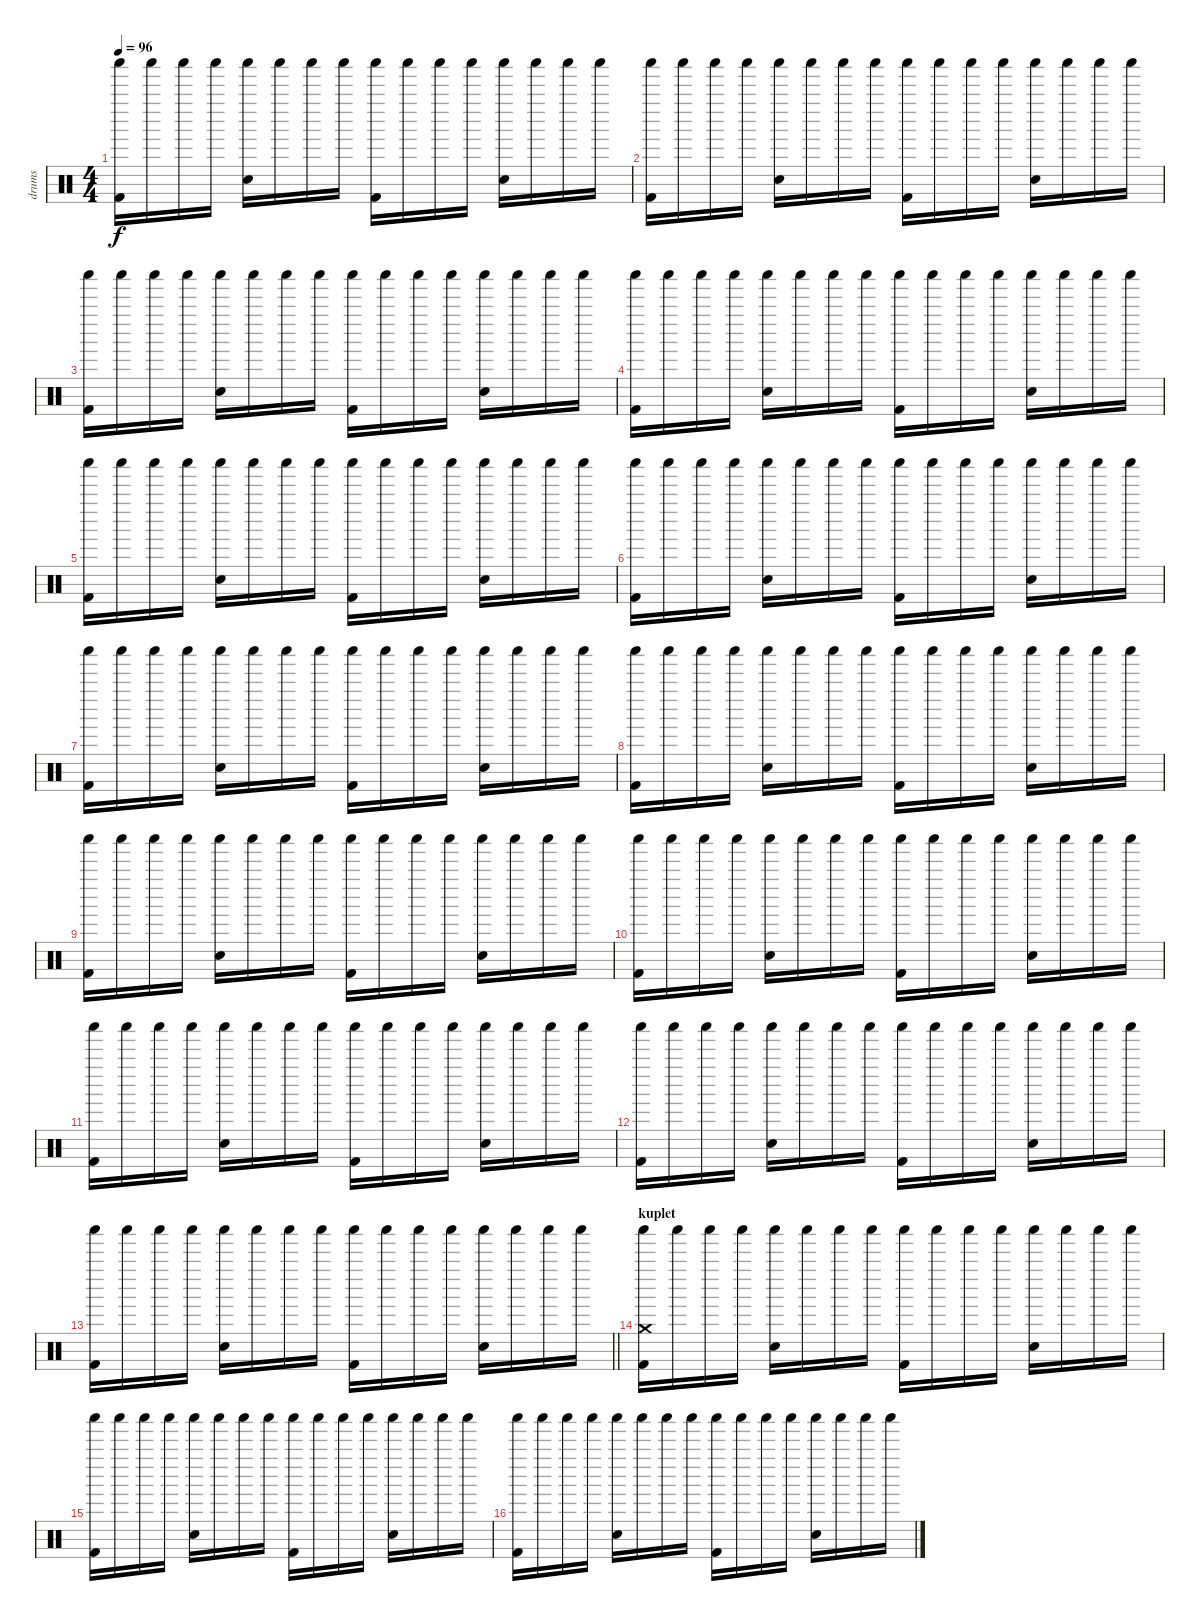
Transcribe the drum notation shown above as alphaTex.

\track ("drums" "drums") {instrument percussion}
\staff {score}
\articulation defaults
\ts (4 4)
\tempo 96
\clef neutral
\ks c
("Shaker (hit)" "Kick (hit) 2").16{dy f} "Shaker (hit)".16 "Shaker (hit)".16 "Shaker (hit)".16 ("Shaker (hit)" "Electric Snare (hit)").16 "Shaker (hit)".16 "Shaker (hit)".16 "Shaker (hit)".16 ("Shaker (hit)" "Kick (hit) 2").16 "Shaker (hit)".16 "Shaker (hit)".16 "Shaker (hit)".16 ("Shaker (hit)" "Electric Snare (hit)").16 "Shaker (hit)".16 "Shaker (hit)".16 "Shaker (hit)".16 |
("Shaker (hit)" "Kick (hit) 2").16 "Shaker (hit)".16 "Shaker (hit)".16 "Shaker (hit)".16 ("Shaker (hit)" "Electric Snare (hit)").16 "Shaker (hit)".16 "Shaker (hit)".16 "Shaker (hit)".16 ("Shaker (hit)" "Kick (hit) 2").16 "Shaker (hit)".16 "Shaker (hit)".16 "Shaker (hit)".16 ("Shaker (hit)" "Electric Snare (hit)").16 "Shaker (hit)".16 "Shaker (hit)".16 "Shaker (hit)".16 |
("Shaker (hit)" "Kick (hit) 2").16 "Shaker (hit)".16 "Shaker (hit)".16 "Shaker (hit)".16 ("Shaker (hit)" "Electric Snare (hit)").16 "Shaker (hit)".16 "Shaker (hit)".16 "Shaker (hit)".16 ("Shaker (hit)" "Kick (hit) 2").16 "Shaker (hit)".16 "Shaker (hit)".16 "Shaker (hit)".16 ("Shaker (hit)" "Electric Snare (hit)").16 "Shaker (hit)".16 "Shaker (hit)".16 "Shaker (hit)".16 |
("Shaker (hit)" "Kick (hit) 2").16 "Shaker (hit)".16 "Shaker (hit)".16 "Shaker (hit)".16 ("Shaker (hit)" "Electric Snare (hit)").16 "Shaker (hit)".16 "Shaker (hit)".16 "Shaker (hit)".16 ("Shaker (hit)" "Kick (hit) 2").16 "Shaker (hit)".16 "Shaker (hit)".16 "Shaker (hit)".16 ("Shaker (hit)" "Electric Snare (hit)").16 "Shaker (hit)".16 "Shaker (hit)".16 "Shaker (hit)".16 |
("Shaker (hit)" "Kick (hit) 2").16 "Shaker (hit)".16 "Shaker (hit)".16 "Shaker (hit)".16 ("Shaker (hit)" "Electric Snare (hit)").16 "Shaker (hit)".16 "Shaker (hit)".16 "Shaker (hit)".16 ("Shaker (hit)" "Kick (hit) 2").16 "Shaker (hit)".16 "Shaker (hit)".16 "Shaker (hit)".16 ("Shaker (hit)" "Electric Snare (hit)").16 "Shaker (hit)".16 "Shaker (hit)".16 "Shaker (hit)".16 |
("Shaker (hit)" "Kick (hit) 2").16 "Shaker (hit)".16 "Shaker (hit)".16 "Shaker (hit)".16 ("Shaker (hit)" "Electric Snare (hit)").16 "Shaker (hit)".16 "Shaker (hit)".16 "Shaker (hit)".16 ("Shaker (hit)" "Kick (hit) 2").16 "Shaker (hit)".16 "Shaker (hit)".16 "Shaker (hit)".16 ("Shaker (hit)" "Electric Snare (hit)").16 "Shaker (hit)".16 "Shaker (hit)".16 "Shaker (hit)".16 |
("Shaker (hit)" "Kick (hit) 2").16 "Shaker (hit)".16 "Shaker (hit)".16 "Shaker (hit)".16 ("Shaker (hit)" "Electric Snare (hit)").16 "Shaker (hit)".16 "Shaker (hit)".16 "Shaker (hit)".16 ("Shaker (hit)" "Kick (hit) 2").16 "Shaker (hit)".16 "Shaker (hit)".16 "Shaker (hit)".16 ("Shaker (hit)" "Electric Snare (hit)").16 "Shaker (hit)".16 "Shaker (hit)".16 "Shaker (hit)".16 |
("Shaker (hit)" "Kick (hit) 2").16 "Shaker (hit)".16 "Shaker (hit)".16 "Shaker (hit)".16 ("Shaker (hit)" "Electric Snare (hit)").16 "Shaker (hit)".16 "Shaker (hit)".16 "Shaker (hit)".16 ("Shaker (hit)" "Kick (hit) 2").16 "Shaker (hit)".16 "Shaker (hit)".16 "Shaker (hit)".16 ("Shaker (hit)" "Electric Snare (hit)").16 "Shaker (hit)".16 "Shaker (hit)".16 "Shaker (hit)".16 |
("Shaker (hit)" "Kick (hit) 2").16 "Shaker (hit)".16 "Shaker (hit)".16 "Shaker (hit)".16 ("Shaker (hit)" "Electric Snare (hit)").16 "Shaker (hit)".16 "Shaker (hit)".16 "Shaker (hit)".16 ("Shaker (hit)" "Kick (hit) 2").16 "Shaker (hit)".16 "Shaker (hit)".16 "Shaker (hit)".16 ("Shaker (hit)" "Electric Snare (hit)").16 "Shaker (hit)".16 "Shaker (hit)".16 "Shaker (hit)".16 |
("Shaker (hit)" "Kick (hit) 2").16 "Shaker (hit)".16 "Shaker (hit)".16 "Shaker (hit)".16 ("Shaker (hit)" "Electric Snare (hit)").16 "Shaker (hit)".16 "Shaker (hit)".16 "Shaker (hit)".16 ("Shaker (hit)" "Kick (hit) 2").16 "Shaker (hit)".16 "Shaker (hit)".16 "Shaker (hit)".16 ("Shaker (hit)" "Electric Snare (hit)").16 "Shaker (hit)".16 "Shaker (hit)".16 "Shaker (hit)".16 |
("Shaker (hit)" "Kick (hit) 2").16 "Shaker (hit)".16 "Shaker (hit)".16 "Shaker (hit)".16 ("Shaker (hit)" "Electric Snare (hit)").16 "Shaker (hit)".16 "Shaker (hit)".16 "Shaker (hit)".16 ("Shaker (hit)" "Kick (hit) 2").16 "Shaker (hit)".16 "Shaker (hit)".16 "Shaker (hit)".16 ("Shaker (hit)" "Electric Snare (hit)").16 "Shaker (hit)".16 "Shaker (hit)".16 "Shaker (hit)".16 |
("Shaker (hit)" "Kick (hit) 2").16 "Shaker (hit)".16 "Shaker (hit)".16 "Shaker (hit)".16 ("Shaker (hit)" "Electric Snare (hit)").16 "Shaker (hit)".16 "Shaker (hit)".16 "Shaker (hit)".16 ("Shaker (hit)" "Kick (hit) 2").16 "Shaker (hit)".16 "Shaker (hit)".16 "Shaker (hit)".16 ("Shaker (hit)" "Electric Snare (hit)").16 "Shaker (hit)".16 "Shaker (hit)".16 "Shaker (hit)".16 |
\barLineRight lightlight
("Shaker (hit)" "Kick (hit) 2").16 "Shaker (hit)".16 "Shaker (hit)".16 "Shaker (hit)".16 ("Shaker (hit)" "Electric Snare (hit)").16 "Shaker (hit)".16 "Shaker (hit)".16 "Shaker (hit)".16 ("Shaker (hit)" "Kick (hit) 2").16 "Shaker (hit)".16 "Shaker (hit)".16 "Shaker (hit)".16 ("Shaker (hit)" "Electric Snare (hit)").16 "Shaker (hit)".16 "Shaker (hit)".16 "Shaker (hit)".16 |
\section ("" "kuplet")
("Shaker (hit)" "Kick (hit) 2" "Crash medium (hit)").16 "Shaker (hit)".16 "Shaker (hit)".16 "Shaker (hit)".16 ("Shaker (hit)" "Electric Snare (hit)").16 "Shaker (hit)".16 "Shaker (hit)".16 "Shaker (hit)".16 ("Shaker (hit)" "Kick (hit) 2").16 "Shaker (hit)".16 "Shaker (hit)".16 "Shaker (hit)".16 ("Shaker (hit)" "Snare (hit) 2").16 "Shaker (hit)".16 "Shaker (hit)".16 "Shaker (hit)".16 |
("Shaker (hit)" "Kick (hit) 2").16 "Shaker (hit)".16 "Shaker (hit)".16 "Shaker (hit)".16 ("Shaker (hit)" "Electric Snare (hit)").16 "Shaker (hit)".16 "Shaker (hit)".16 "Shaker (hit)".16 ("Shaker (hit)" "Kick (hit) 2").16 "Shaker (hit)".16 "Shaker (hit)".16 "Shaker (hit)".16 ("Shaker (hit)" "Electric Snare (hit)").16 "Shaker (hit)".16 "Shaker (hit)".16 "Shaker (hit)".16 |
("Shaker (hit)" "Kick (hit) 2").16 "Shaker (hit)".16 "Shaker (hit)".16 "Shaker (hit)".16 ("Shaker (hit)" "Electric Snare (hit)").16 "Shaker (hit)".16 "Shaker (hit)".16 "Shaker (hit)".16 ("Shaker (hit)" "Kick (hit) 2").16 "Shaker (hit)".16 "Shaker (hit)".16 "Shaker (hit)".16 ("Shaker (hit)" "Electric Snare (hit)").16 "Shaker (hit)".16 "Shaker (hit)".16 "Shaker (hit)".16
